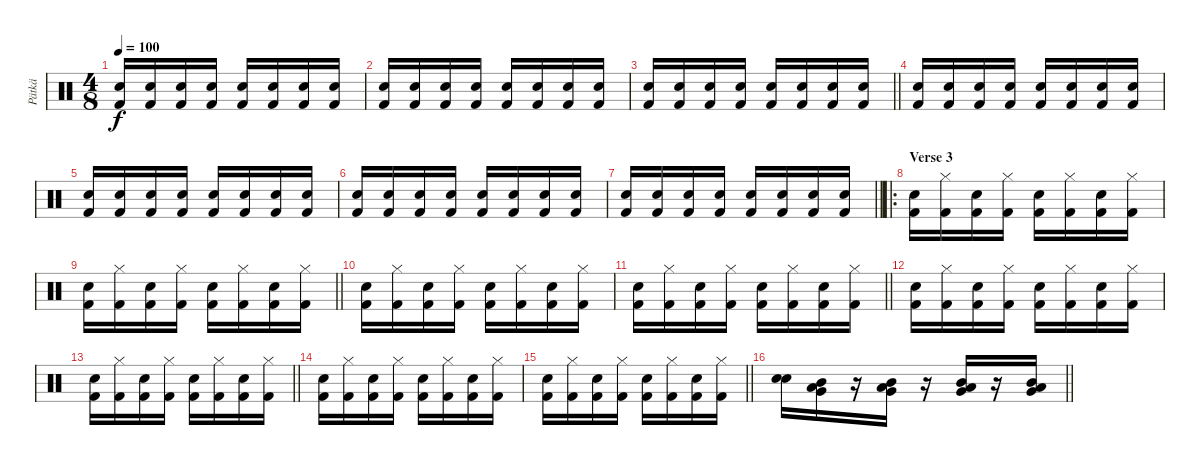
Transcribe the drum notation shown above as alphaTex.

\track ("Pätkä" "Pätkä") {instrument percussion}
\staff {score}
\articulation defaults
\ts (4 8)
\tempo 100
\clef neutral
\ks c
("Snare (hit) 2" "Kick (hit) 2").16{dy f} ("Electric Snare (hit)" "Kick (hit) 2").16 ("Snare (hit) 2" "Kick (hit) 2").16 ("Electric Snare (hit)" "Kick (hit) 2").16 ("Snare (hit) 2" "Kick (hit) 2").16 ("Electric Snare (hit)" "Kick (hit) 2").16 ("Snare (hit) 2" "Kick (hit) 2").16 ("Electric Snare (hit)" "Kick (hit) 2").16 |
("Snare (hit) 2" "Kick (hit) 2").16 ("Electric Snare (hit)" "Kick (hit) 2").16 ("Snare (hit) 2" "Kick (hit) 2").16 ("Electric Snare (hit)" "Kick (hit) 2").16 ("Snare (hit) 2" "Kick (hit) 2").16 ("Electric Snare (hit)" "Kick (hit) 2").16 ("Snare (hit) 2" "Kick (hit) 2").16 ("Electric Snare (hit)" "Kick (hit) 2").16 |
\barLineRight lightlight
("Snare (hit) 2" "Kick (hit) 2").16 ("Electric Snare (hit)" "Kick (hit) 2").16 ("Snare (hit) 2" "Kick (hit) 2").16 ("Electric Snare (hit)" "Kick (hit) 2").16 ("Snare (hit) 2" "Kick (hit) 2").16 ("Electric Snare (hit)" "Kick (hit) 2").16 ("Snare (hit) 2" "Kick (hit) 2").16 ("Electric Snare (hit)" "Kick (hit) 2").16 |
("Snare (hit) 2" "Kick (hit) 2").16 ("Electric Snare (hit)" "Kick (hit) 2").16 ("Snare (hit) 2" "Kick (hit) 2").16 ("Electric Snare (hit)" "Kick (hit) 2").16 ("Snare (hit) 2" "Kick (hit) 2").16 ("Electric Snare (hit)" "Kick (hit) 2").16 ("Snare (hit) 2" "Kick (hit) 2").16 ("Electric Snare (hit)" "Kick (hit) 2").16 |
("Snare (hit) 2" "Kick (hit) 2").16 ("Electric Snare (hit)" "Kick (hit) 2").16 ("Snare (hit) 2" "Kick (hit) 2").16 ("Electric Snare (hit)" "Kick (hit) 2").16 ("Snare (hit) 2" "Kick (hit) 2").16 ("Electric Snare (hit)" "Kick (hit) 2").16 ("Snare (hit) 2" "Kick (hit) 2").16 ("Electric Snare (hit)" "Kick (hit) 2").16 |
("Snare (hit) 2" "Kick (hit) 2").16 ("Electric Snare (hit)" "Kick (hit) 2").16 ("Snare (hit) 2" "Kick (hit) 2").16 ("Electric Snare (hit)" "Kick (hit) 2").16 ("Snare (hit) 2" "Kick (hit) 2").16 ("Electric Snare (hit)" "Kick (hit) 2").16 ("Snare (hit) 2" "Kick (hit) 2").16 ("Electric Snare (hit)" "Kick (hit) 2").16 |
\barLineRight lightlight
("Snare (hit) 2" "Kick (hit) 2").16 ("Electric Snare (hit)" "Kick (hit) 2").16 ("Snare (hit) 2" "Kick (hit) 2").16 ("Electric Snare (hit)" "Kick (hit) 2").16 ("Snare (hit) 2" "Kick (hit) 2").16 ("Electric Snare (hit)" "Kick (hit) 2").16 ("Snare (hit) 2" "Kick (hit) 2").16 ("Electric Snare (hit)" "Kick (hit) 2").16 |
\ro
\section ("" "Verse 3")
("Snare (hit) 2" "Kick (hit) 2").16 ("Hi-Hat (closed)" "Kick (hit) 2").16 ("Snare (hit) 2" "Kick (hit) 2").16 ("Hi-Hat (closed)" "Kick (hit) 2").16 ("Snare (hit) 2" "Kick (hit) 2").16 ("Hi-Hat (closed)" "Kick (hit) 2").16 ("Snare (hit) 2" "Kick (hit) 2").16 ("Hi-Hat (closed)" "Kick (hit) 2").16 |
\barLineRight lightlight
("Snare (hit) 2" "Kick (hit) 2").16 ("Hi-Hat (closed)" "Kick (hit) 2").16 ("Snare (hit) 2" "Kick (hit) 2").16 ("Hi-Hat (closed)" "Kick (hit) 2").16 ("Snare (hit) 2" "Kick (hit) 2").16 ("Hi-Hat (closed)" "Kick (hit) 2").16 ("Snare (hit) 2" "Kick (hit) 2").16 ("Hi-Hat (closed)" "Kick (hit) 2").16 |
("Snare (hit) 2" "Kick (hit) 2").16 ("Hi-Hat (closed)" "Kick (hit) 2").16 ("Snare (hit) 2" "Kick (hit) 2").16 ("Hi-Hat (closed)" "Kick (hit) 2").16 ("Snare (hit) 2" "Kick (hit) 2").16 ("Hi-Hat (closed)" "Kick (hit) 2").16 ("Snare (hit) 2" "Kick (hit) 2").16 ("Hi-Hat (closed)" "Kick (hit) 2").16 |
\barLineRight lightlight
("Snare (hit) 2" "Kick (hit) 2").16 ("Hi-Hat (closed)" "Kick (hit) 2").16 ("Snare (hit) 2" "Kick (hit) 2").16 ("Hi-Hat (closed)" "Kick (hit) 2").16 ("Snare (hit) 2" "Kick (hit) 2").16 ("Hi-Hat (closed)" "Kick (hit) 2").16 ("Snare (hit) 2" "Kick (hit) 2").16 ("Hi-Hat (closed)" "Kick (hit) 2").16 |
("Snare (hit) 2" "Kick (hit) 2").16 ("Hi-Hat (closed)" "Kick (hit) 2").16 ("Snare (hit) 2" "Kick (hit) 2").16 ("Hi-Hat (closed)" "Kick (hit) 2").16 ("Snare (hit) 2" "Kick (hit) 2").16 ("Hi-Hat (closed)" "Kick (hit) 2").16 ("Snare (hit) 2" "Kick (hit) 2").16 ("Hi-Hat (closed)" "Kick (hit) 2").16 |
\barLineRight lightlight
("Snare (hit) 2" "Kick (hit) 2").16 ("Hi-Hat (closed)" "Kick (hit) 2").16 ("Snare (hit) 2" "Kick (hit) 2").16 ("Hi-Hat (closed)" "Kick (hit) 2").16 ("Snare (hit) 2" "Kick (hit) 2").16 ("Hi-Hat (closed)" "Kick (hit) 2").16 ("Snare (hit) 2" "Kick (hit) 2").16 ("Hi-Hat (closed)" "Kick (hit) 2").16 |
("Snare (hit) 2" "Kick (hit) 2").16 ("Hi-Hat (closed)" "Kick (hit) 2").16 ("Snare (hit) 2" "Kick (hit) 2").16 ("Hi-Hat (closed)" "Kick (hit) 2").16 ("Snare (hit) 2" "Kick (hit) 2").16 ("Hi-Hat (closed)" "Kick (hit) 2").16 ("Snare (hit) 2" "Kick (hit) 2").16 ("Hi-Hat (closed)" "Kick (hit) 2").16 |
\barLineRight lightlight
("Snare (hit) 2" "Kick (hit) 2").16 ("Hi-Hat (closed)" "Kick (hit) 2").16 ("Snare (hit) 2" "Kick (hit) 2").16 ("Hi-Hat (closed)" "Kick (hit) 2").16 ("Snare (hit) 2" "Kick (hit) 2").16 ("Hi-Hat (closed)" "Kick (hit) 2").16 ("Snare (hit) 2" "Kick (hit) 2").16 ("Hi-Hat (closed)" "Kick (hit) 2").16 |
\barLineRight lightlight
("Snare (hit) 2" "Electric Snare (hit)").16 ("Mid Tom (hit)" "Very Low Tom (hit)" "Low Tom (hit)").16 r.16 ("Mid Tom (hit)" "Very Low Tom (hit)" "Low Tom (hit)").16 r.16 ("Mid Tom (hit)" "Very Low Tom (hit)" "Low Tom (hit)").16 r.16 ("Mid Tom (hit)" "Very Low Tom (hit)" "Low Tom (hit)").16
